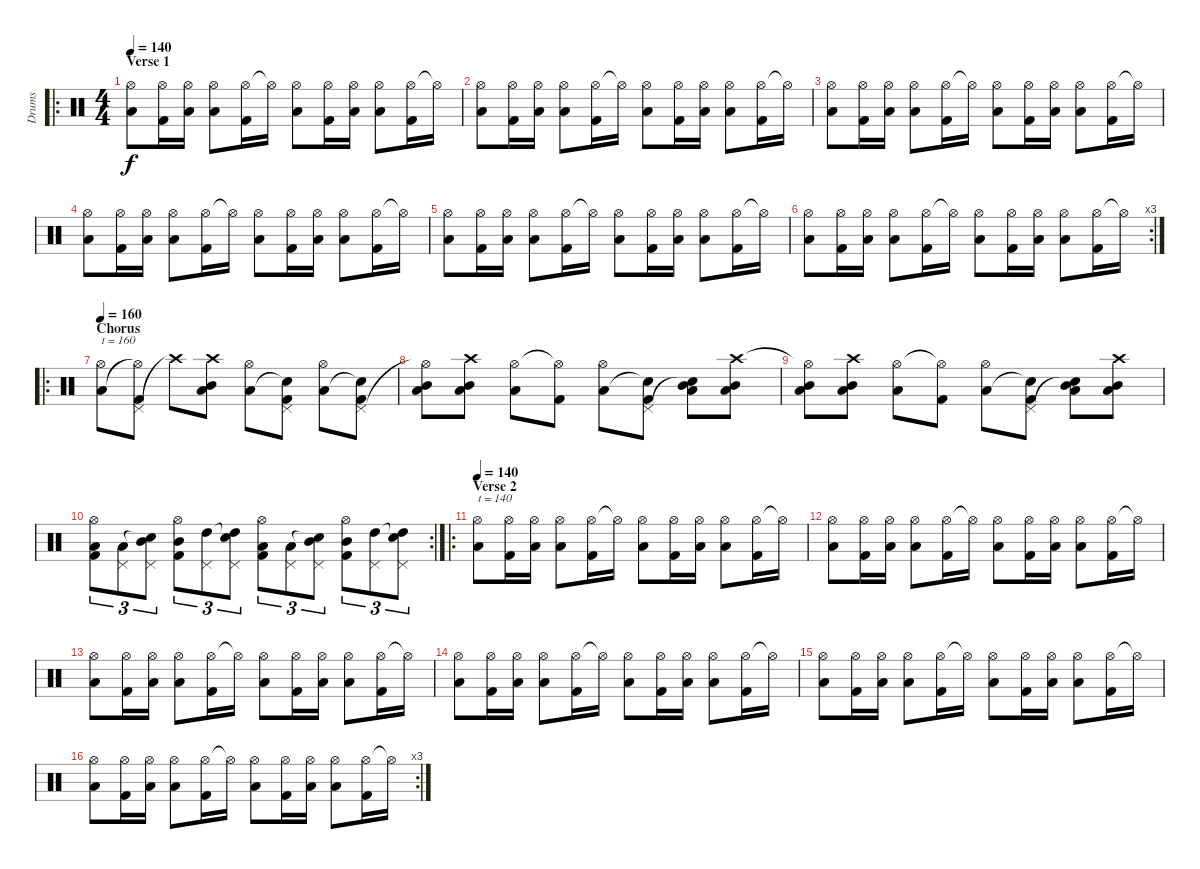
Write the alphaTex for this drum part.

\track ("Drums" "Drums") {instrument percussion}
\staff {score}
\articulation defaults
\ro
\ts (4 4)
\section ("" "Verse 1")
\tempo 140
\clef neutral
\ks c
("Hi-Hat (open)" "Low Floor Tom (hit)").8{dy f} ("Hi-Hat (open)" "Kick (hit) 2").16 ("Hi-Hat (open)" "Low Floor Tom (hit)").16 ("Hi-Hat (open)" "Low Floor Tom (hit)").8 ("Hi-Hat (open)" "Kick (hit) 2").16 "Hi-Hat (open)"{t}.16 ("Hi-Hat (open)" "Low Floor Tom (hit)").8 ("Hi-Hat (open)" "Kick (hit) 2").16 ("Hi-Hat (open)" "Low Floor Tom (hit)").16 ("Hi-Hat (open)" "Low Floor Tom (hit)").8 ("Hi-Hat (open)" "Kick (hit) 2").16 "Hi-Hat (open)"{t}.16 |
("Hi-Hat (open)" "Low Floor Tom (hit)").8 ("Hi-Hat (open)" "Kick (hit) 2").16 ("Hi-Hat (open)" "Low Floor Tom (hit)").16 ("Hi-Hat (open)" "Low Floor Tom (hit)").8 ("Hi-Hat (open)" "Kick (hit) 2").16 "Hi-Hat (open)"{t}.16 ("Hi-Hat (open)" "Low Floor Tom (hit)").8 ("Hi-Hat (open)" "Kick (hit) 2").16 ("Hi-Hat (open)" "Low Floor Tom (hit)").16 ("Hi-Hat (open)" "Low Floor Tom (hit)").8 ("Hi-Hat (open)" "Kick (hit) 2").16 "Hi-Hat (open)"{t}.16 |
("Hi-Hat (open)" "Low Floor Tom (hit)").8 ("Hi-Hat (open)" "Kick (hit) 2").16 ("Hi-Hat (open)" "Low Floor Tom (hit)").16 ("Hi-Hat (open)" "Low Floor Tom (hit)").8 ("Hi-Hat (open)" "Kick (hit) 2").16 "Hi-Hat (open)"{t}.16 ("Hi-Hat (open)" "Low Floor Tom (hit)").8 ("Hi-Hat (open)" "Kick (hit) 2").16 ("Hi-Hat (open)" "Low Floor Tom (hit)").16 ("Hi-Hat (open)" "Low Floor Tom (hit)").8 ("Hi-Hat (open)" "Kick (hit) 2").16 "Hi-Hat (open)"{t}.16 |
("Hi-Hat (open)" "Low Floor Tom (hit)").8 ("Hi-Hat (open)" "Kick (hit) 2").16 ("Hi-Hat (open)" "Low Floor Tom (hit)").16 ("Hi-Hat (open)" "Low Floor Tom (hit)").8 ("Hi-Hat (open)" "Kick (hit) 2").16 "Hi-Hat (open)"{t}.16 ("Hi-Hat (open)" "Low Floor Tom (hit)").8 ("Hi-Hat (open)" "Kick (hit) 2").16 ("Hi-Hat (open)" "Low Floor Tom (hit)").16 ("Hi-Hat (open)" "Low Floor Tom (hit)").8 ("Hi-Hat (open)" "Kick (hit) 2").16 "Hi-Hat (open)"{t}.16 |
("Hi-Hat (open)" "Low Floor Tom (hit)").8 ("Hi-Hat (open)" "Kick (hit) 2").16 ("Hi-Hat (open)" "Low Floor Tom (hit)").16 ("Hi-Hat (open)" "Low Floor Tom (hit)").8 ("Hi-Hat (open)" "Kick (hit) 2").16 "Hi-Hat (open)"{t}.16 ("Hi-Hat (open)" "Low Floor Tom (hit)").8 ("Hi-Hat (open)" "Kick (hit) 2").16 ("Hi-Hat (open)" "Low Floor Tom (hit)").16 ("Hi-Hat (open)" "Low Floor Tom (hit)").8 ("Hi-Hat (open)" "Kick (hit) 2").16 "Hi-Hat (open)"{t}.16 |
\rc 3
("Hi-Hat (open)" "Low Floor Tom (hit)").8 ("Hi-Hat (open)" "Kick (hit) 2").16 ("Hi-Hat (open)" "Low Floor Tom (hit)").16 ("Hi-Hat (open)" "Low Floor Tom (hit)").8 ("Hi-Hat (open)" "Kick (hit) 2").16 "Hi-Hat (open)"{t}.16 ("Hi-Hat (open)" "Low Floor Tom (hit)").8 ("Hi-Hat (open)" "Kick (hit) 2").16 ("Hi-Hat (open)" "Low Floor Tom (hit)").16 ("Hi-Hat (open)" "Low Floor Tom (hit)").8 ("Hi-Hat (open)" "Kick (hit) 2").16 "Hi-Hat (open)"{t}.16 |
\ro
\section ("" "Chorus")
\tempo 160
("Hi-Hat (open)" "Low Floor Tom (hit)").8{txt "t = 160"} ("Pedal Hi-Hat (hit)" "Hi-Hat (open)"{t} "Kick (hit) 2").8 "Crash high (hit)"{t}.8 ("Crash high (hit)" "Mid Tom (hit)" "Low Tom (hit)").8 ("Hi-Hat (open)" "Low Floor Tom (hit)").8 ("Pedal Hi-Hat (hit)" "Snare (hit)"{t} "Kick (hit) 2").8 ("Hi-Hat (open)" "Low Floor Tom (hit)").8 ("Pedal Hi-Hat (hit)" "Snare (hit)"{t} "Kick (hit) 2").8 |
("Hi-Hat (open)"{t} "Mid Tom (hit)" "Low Tom (hit)").8 ("Crash high (hit)" "Mid Tom (hit)" "Low Tom (hit)").8 ("Hi-Hat (open)" "Low Floor Tom (hit)").8 ("Hi-Hat (open)"{t} "Kick (hit) 2").8 ("Hi-Hat (open)" "Low Floor Tom (hit)").8 ("Pedal Hi-Hat (hit)" "Snare (hit)"{t} "Kick (hit) 2").8 ("Snare (hit)"{t} "Mid Tom (hit)" "Low Tom (hit)").8 ("Crash high (hit)" "Mid Tom (hit)" "Low Tom (hit)").8 |
("Hi-Hat (open)"{t} "Mid Tom (hit)" "Low Tom (hit)").8 ("Crash high (hit)" "Mid Tom (hit)" "Low Tom (hit)").8 ("Hi-Hat (open)" "Low Floor Tom (hit)").8 ("Hi-Hat (open)"{t} "Kick (hit) 2").8 ("Hi-Hat (open)" "Low Floor Tom (hit)").8 ("Pedal Hi-Hat (hit)" "Snare (hit)"{t} "Kick (hit) 2").8 ("Snare (hit)"{t} "Mid Tom (hit)" "Low Tom (hit)").8 ("Crash high (hit)" "Mid Tom (hit)" "Low Tom (hit)").8 |
\rc 2
("Hi-Hat (open)" "Low Tom (hit)" "Kick (hit) 2").8{tu (3 2)} ("Pedal Hi-Hat (hit)" "Low Tom (hit)").8{tu (3 2)} ("Pedal Hi-Hat (hit)" "Snare (hit)"{t} "Mid Tom (hit)").8{tu (3 2)} ("Hi-Hat (open)" "Mid Tom (hit)" "Kick (hit) 2").8{tu (3 2)} ("Pedal Hi-Hat (hit)" "High Tom (hit)").8{tu (3 2)} ("Pedal Hi-Hat (hit)" "Snare (hit)"{t} "High Tom (hit)").8{tu (3 2)} ("Hi-Hat (open)" "Low Tom (hit)" "Kick (hit) 2").8{tu (3 2)} ("Pedal Hi-Hat (hit)" "Low Tom (hit)").8{tu (3 2)} ("Pedal Hi-Hat (hit)" "Snare (hit)"{t} "Mid Tom (hit)").8{tu (3 2)} ("Hi-Hat (open)" "Mid Tom (hit)" "Kick (hit) 2").8{tu (3 2)} ("Pedal Hi-Hat (hit)" "High Tom (hit)").8{tu (3 2)} ("Pedal Hi-Hat (hit)" "Snare (hit)"{t} "High Tom (hit)").8{tu (3 2)} |
\ro
\section ("" "Verse 2")
\tempo 140
("Hi-Hat (open)" "Low Floor Tom (hit)").8{txt "t = 140"} ("Hi-Hat (open)" "Kick (hit) 2").16 ("Hi-Hat (open)" "Low Floor Tom (hit)").16 ("Hi-Hat (open)" "Low Floor Tom (hit)").8 ("Hi-Hat (open)" "Kick (hit) 2").16 "Hi-Hat (open)"{t}.16 ("Hi-Hat (open)" "Low Floor Tom (hit)").8 ("Hi-Hat (open)" "Kick (hit) 2").16 ("Hi-Hat (open)" "Low Floor Tom (hit)").16 ("Hi-Hat (open)" "Low Floor Tom (hit)").8 ("Hi-Hat (open)" "Kick (hit) 2").16 "Hi-Hat (open)"{t}.16 |
("Hi-Hat (open)" "Low Floor Tom (hit)").8 ("Hi-Hat (open)" "Kick (hit) 2").16 ("Hi-Hat (open)" "Low Floor Tom (hit)").16 ("Hi-Hat (open)" "Low Floor Tom (hit)").8 ("Hi-Hat (open)" "Kick (hit) 2").16 "Hi-Hat (open)"{t}.16 ("Hi-Hat (open)" "Low Floor Tom (hit)").8 ("Hi-Hat (open)" "Kick (hit) 2").16 ("Hi-Hat (open)" "Low Floor Tom (hit)").16 ("Hi-Hat (open)" "Low Floor Tom (hit)").8 ("Hi-Hat (open)" "Kick (hit) 2").16 "Hi-Hat (open)"{t}.16 |
("Hi-Hat (open)" "Low Floor Tom (hit)").8 ("Hi-Hat (open)" "Kick (hit) 2").16 ("Hi-Hat (open)" "Low Floor Tom (hit)").16 ("Hi-Hat (open)" "Low Floor Tom (hit)").8 ("Hi-Hat (open)" "Kick (hit) 2").16 "Hi-Hat (open)"{t}.16 ("Hi-Hat (open)" "Low Floor Tom (hit)").8 ("Hi-Hat (open)" "Kick (hit) 2").16 ("Hi-Hat (open)" "Low Floor Tom (hit)").16 ("Hi-Hat (open)" "Low Floor Tom (hit)").8 ("Hi-Hat (open)" "Kick (hit) 2").16 "Hi-Hat (open)"{t}.16 |
("Hi-Hat (open)" "Low Floor Tom (hit)").8 ("Hi-Hat (open)" "Kick (hit) 2").16 ("Hi-Hat (open)" "Low Floor Tom (hit)").16 ("Hi-Hat (open)" "Low Floor Tom (hit)").8 ("Hi-Hat (open)" "Kick (hit) 2").16 "Hi-Hat (open)"{t}.16 ("Hi-Hat (open)" "Low Floor Tom (hit)").8 ("Hi-Hat (open)" "Kick (hit) 2").16 ("Hi-Hat (open)" "Low Floor Tom (hit)").16 ("Hi-Hat (open)" "Low Floor Tom (hit)").8 ("Hi-Hat (open)" "Kick (hit) 2").16 "Hi-Hat (open)"{t}.16 |
("Hi-Hat (open)" "Low Floor Tom (hit)").8 ("Hi-Hat (open)" "Kick (hit) 2").16 ("Hi-Hat (open)" "Low Floor Tom (hit)").16 ("Hi-Hat (open)" "Low Floor Tom (hit)").8 ("Hi-Hat (open)" "Kick (hit) 2").16 "Hi-Hat (open)"{t}.16 ("Hi-Hat (open)" "Low Floor Tom (hit)").8 ("Hi-Hat (open)" "Kick (hit) 2").16 ("Hi-Hat (open)" "Low Floor Tom (hit)").16 ("Hi-Hat (open)" "Low Floor Tom (hit)").8 ("Hi-Hat (open)" "Kick (hit) 2").16 "Hi-Hat (open)"{t}.16 |
\rc 3
("Hi-Hat (open)" "Low Floor Tom (hit)").8 ("Hi-Hat (open)" "Kick (hit) 2").16 ("Hi-Hat (open)" "Low Floor Tom (hit)").16 ("Hi-Hat (open)" "Low Floor Tom (hit)").8 ("Hi-Hat (open)" "Kick (hit) 2").16 "Hi-Hat (open)"{t}.16 ("Hi-Hat (open)" "Low Floor Tom (hit)").8 ("Hi-Hat (open)" "Kick (hit) 2").16 ("Hi-Hat (open)" "Low Floor Tom (hit)").16 ("Hi-Hat (open)" "Low Floor Tom (hit)").8 ("Hi-Hat (open)" "Kick (hit) 2").16 "Hi-Hat (open)"{t}.16
